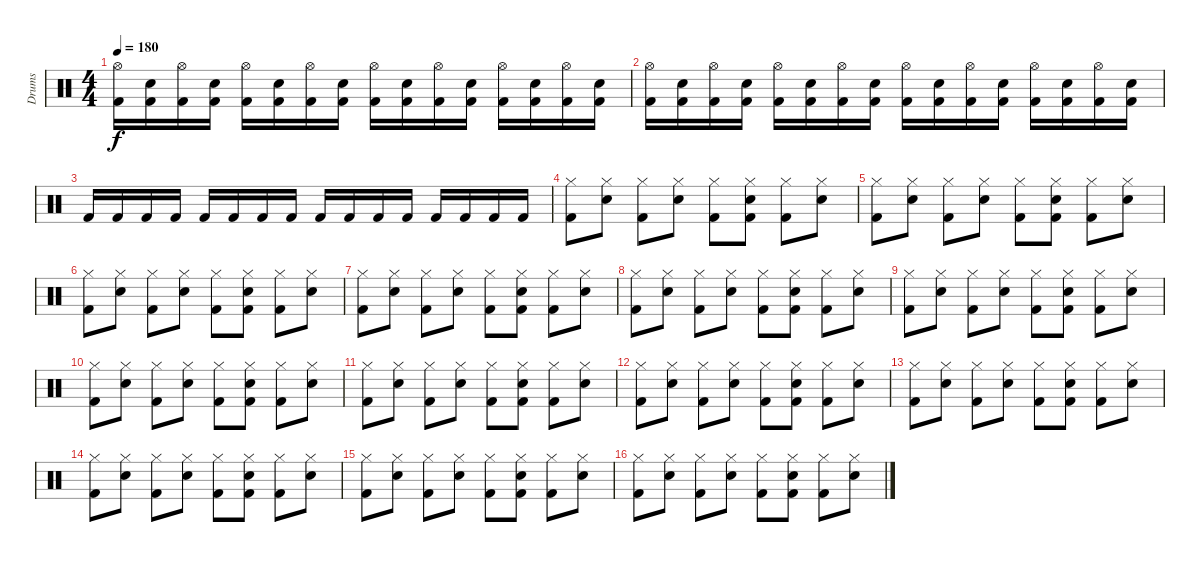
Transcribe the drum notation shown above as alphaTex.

\track ("Drums" "Drums") {instrument percussion}
\staff {score}
\articulation defaults
\ts (4 4)
\tempo 180
\clef neutral
\ks c
("Hi-Hat (open)" "Kick (hit) 2").16{dy f} ("Snare (hit) 2" "Kick (hit) 2").16 ("Hi-Hat (open)" "Kick (hit) 2").16 ("Snare (hit) 2" "Kick (hit) 2").16 ("Hi-Hat (open)" "Kick (hit) 2").16 ("Snare (hit) 2" "Kick (hit) 2").16 ("Hi-Hat (open)" "Kick (hit) 2").16 ("Snare (hit) 2" "Kick (hit) 2").16 ("Hi-Hat (open)" "Kick (hit) 2").16 ("Snare (hit) 2" "Kick (hit) 2").16 ("Hi-Hat (open)" "Kick (hit) 2").16 ("Snare (hit) 2" "Kick (hit) 2").16 ("Hi-Hat (open)" "Kick (hit) 2").16 ("Snare (hit) 2" "Kick (hit) 2").16 ("Hi-Hat (open)" "Kick (hit) 2").16 ("Snare (hit) 2" "Kick (hit) 2").16 |
("Hi-Hat (open)" "Kick (hit) 2").16 ("Snare (hit) 2" "Kick (hit) 2").16 ("Hi-Hat (open)" "Kick (hit) 2").16 ("Snare (hit) 2" "Kick (hit) 2").16 ("Hi-Hat (open)" "Kick (hit) 2").16 ("Snare (hit) 2" "Kick (hit) 2").16 ("Hi-Hat (open)" "Kick (hit) 2").16 ("Snare (hit) 2" "Kick (hit) 2").16 ("Hi-Hat (open)" "Kick (hit) 2").16 ("Snare (hit) 2" "Kick (hit) 2").16 ("Hi-Hat (open)" "Kick (hit) 2").16 ("Snare (hit) 2" "Kick (hit) 2").16 ("Hi-Hat (open)" "Kick (hit) 2").16 ("Snare (hit) 2" "Kick (hit) 2").16 ("Hi-Hat (open)" "Kick (hit) 2").16 ("Snare (hit) 2" "Kick (hit) 2").16 |
"Kick (hit) 2".16 "Kick (hit) 2".16 "Kick (hit) 2".16 "Kick (hit) 2".16 "Kick (hit) 2".16 "Kick (hit) 2".16 "Kick (hit) 2".16 "Kick (hit) 2".16 "Kick (hit) 2".16 "Kick (hit) 2".16 "Kick (hit) 2".16 "Kick (hit) 2".16 "Kick (hit) 2".16 "Kick (hit) 2".16 "Kick (hit) 2".16 "Kick (hit) 2".16 |
("Hi-Hat (closed)" "Kick (hit) 2").8 ("Hi-Hat (closed)" "Snare (hit) 2").8 ("Hi-Hat (closed)" "Kick (hit) 2").8 ("Hi-Hat (closed)" "Snare (hit) 2").8 ("Hi-Hat (closed)" "Kick (hit) 2").8 ("Hi-Hat (closed)" "Snare (hit) 2" "Kick (hit) 2").8 ("Hi-Hat (closed)" "Kick (hit) 2").8 ("Hi-Hat (closed)" "Snare (hit) 2").8 |
("Hi-Hat (closed)" "Kick (hit) 2").8 ("Hi-Hat (closed)" "Snare (hit) 2").8 ("Hi-Hat (closed)" "Kick (hit) 2").8 ("Hi-Hat (closed)" "Snare (hit) 2").8 ("Hi-Hat (closed)" "Kick (hit) 2").8 ("Hi-Hat (closed)" "Snare (hit) 2" "Kick (hit) 2").8 ("Hi-Hat (closed)" "Kick (hit) 2").8 ("Hi-Hat (closed)" "Snare (hit) 2").8 |
("Hi-Hat (closed)" "Kick (hit) 2").8 ("Hi-Hat (closed)" "Snare (hit) 2").8 ("Hi-Hat (closed)" "Kick (hit) 2").8 ("Hi-Hat (closed)" "Snare (hit) 2").8 ("Hi-Hat (closed)" "Kick (hit) 2").8 ("Hi-Hat (closed)" "Snare (hit) 2" "Kick (hit) 2").8 ("Hi-Hat (closed)" "Kick (hit) 2").8 ("Hi-Hat (closed)" "Snare (hit) 2").8 |
("Hi-Hat (closed)" "Kick (hit) 2").8 ("Hi-Hat (closed)" "Snare (hit) 2").8 ("Hi-Hat (closed)" "Kick (hit) 2").8 ("Hi-Hat (closed)" "Snare (hit) 2").8 ("Hi-Hat (closed)" "Kick (hit) 2").8 ("Hi-Hat (closed)" "Snare (hit) 2" "Kick (hit) 2").8 ("Hi-Hat (closed)" "Kick (hit) 2").8 ("Hi-Hat (closed)" "Snare (hit) 2").8 |
("Hi-Hat (closed)" "Kick (hit) 2").8 ("Hi-Hat (closed)" "Snare (hit) 2").8 ("Hi-Hat (closed)" "Kick (hit) 2").8 ("Hi-Hat (closed)" "Snare (hit) 2").8 ("Hi-Hat (closed)" "Kick (hit) 2").8 ("Hi-Hat (closed)" "Snare (hit) 2" "Kick (hit) 2").8 ("Hi-Hat (closed)" "Kick (hit) 2").8 ("Hi-Hat (closed)" "Snare (hit) 2").8 |
("Hi-Hat (closed)" "Kick (hit) 2").8 ("Hi-Hat (closed)" "Snare (hit) 2").8 ("Hi-Hat (closed)" "Kick (hit) 2").8 ("Hi-Hat (closed)" "Snare (hit) 2").8 ("Hi-Hat (closed)" "Kick (hit) 2").8 ("Hi-Hat (closed)" "Snare (hit) 2" "Kick (hit) 2").8 ("Hi-Hat (closed)" "Kick (hit) 2").8 ("Hi-Hat (closed)" "Snare (hit) 2").8 |
("Hi-Hat (closed)" "Kick (hit) 2").8 ("Hi-Hat (closed)" "Snare (hit) 2").8 ("Hi-Hat (closed)" "Kick (hit) 2").8 ("Hi-Hat (closed)" "Snare (hit) 2").8 ("Hi-Hat (closed)" "Kick (hit) 2").8 ("Hi-Hat (closed)" "Snare (hit) 2" "Kick (hit) 2").8 ("Hi-Hat (closed)" "Kick (hit) 2").8 ("Hi-Hat (closed)" "Snare (hit) 2").8 |
("Hi-Hat (closed)" "Kick (hit) 2").8 ("Hi-Hat (closed)" "Snare (hit) 2").8 ("Hi-Hat (closed)" "Kick (hit) 2").8 ("Hi-Hat (closed)" "Snare (hit) 2").8 ("Hi-Hat (closed)" "Kick (hit) 2").8 ("Hi-Hat (closed)" "Snare (hit) 2" "Kick (hit) 2").8 ("Hi-Hat (closed)" "Kick (hit) 2").8 ("Hi-Hat (closed)" "Snare (hit) 2").8 |
("Hi-Hat (closed)" "Kick (hit) 2").8 ("Hi-Hat (closed)" "Snare (hit) 2").8 ("Hi-Hat (closed)" "Kick (hit) 2").8 ("Hi-Hat (closed)" "Snare (hit) 2").8 ("Hi-Hat (closed)" "Kick (hit) 2").8 ("Hi-Hat (closed)" "Snare (hit) 2" "Kick (hit) 2").8 ("Hi-Hat (closed)" "Kick (hit) 2").8 ("Hi-Hat (closed)" "Snare (hit) 2").8 |
("Hi-Hat (closed)" "Kick (hit) 2").8 ("Hi-Hat (closed)" "Snare (hit) 2").8 ("Hi-Hat (closed)" "Kick (hit) 2").8 ("Hi-Hat (closed)" "Snare (hit) 2").8 ("Hi-Hat (closed)" "Kick (hit) 2").8 ("Hi-Hat (closed)" "Snare (hit) 2" "Kick (hit) 2").8 ("Hi-Hat (closed)" "Kick (hit) 2").8 ("Hi-Hat (closed)" "Snare (hit) 2").8 |
("Hi-Hat (closed)" "Kick (hit) 2").8 ("Hi-Hat (closed)" "Snare (hit) 2").8 ("Hi-Hat (closed)" "Kick (hit) 2").8 ("Hi-Hat (closed)" "Snare (hit) 2").8 ("Hi-Hat (closed)" "Kick (hit) 2").8 ("Hi-Hat (closed)" "Snare (hit) 2" "Kick (hit) 2").8 ("Hi-Hat (closed)" "Kick (hit) 2").8 ("Hi-Hat (closed)" "Snare (hit) 2").8 |
("Hi-Hat (closed)" "Kick (hit) 2").8 ("Hi-Hat (closed)" "Snare (hit) 2").8 ("Hi-Hat (closed)" "Kick (hit) 2").8 ("Hi-Hat (closed)" "Snare (hit) 2").8 ("Hi-Hat (closed)" "Kick (hit) 2").8 ("Hi-Hat (closed)" "Snare (hit) 2" "Kick (hit) 2").8 ("Hi-Hat (closed)" "Kick (hit) 2").8 ("Hi-Hat (closed)" "Snare (hit) 2").8 |
("Hi-Hat (closed)" "Kick (hit) 2").8 ("Hi-Hat (closed)" "Snare (hit) 2").8 ("Hi-Hat (closed)" "Kick (hit) 2").8 ("Hi-Hat (closed)" "Snare (hit) 2").8 ("Hi-Hat (closed)" "Kick (hit) 2").8 ("Hi-Hat (closed)" "Snare (hit) 2" "Kick (hit) 2").8 ("Hi-Hat (closed)" "Kick (hit) 2").8 ("Hi-Hat (closed)" "Snare (hit) 2").8
